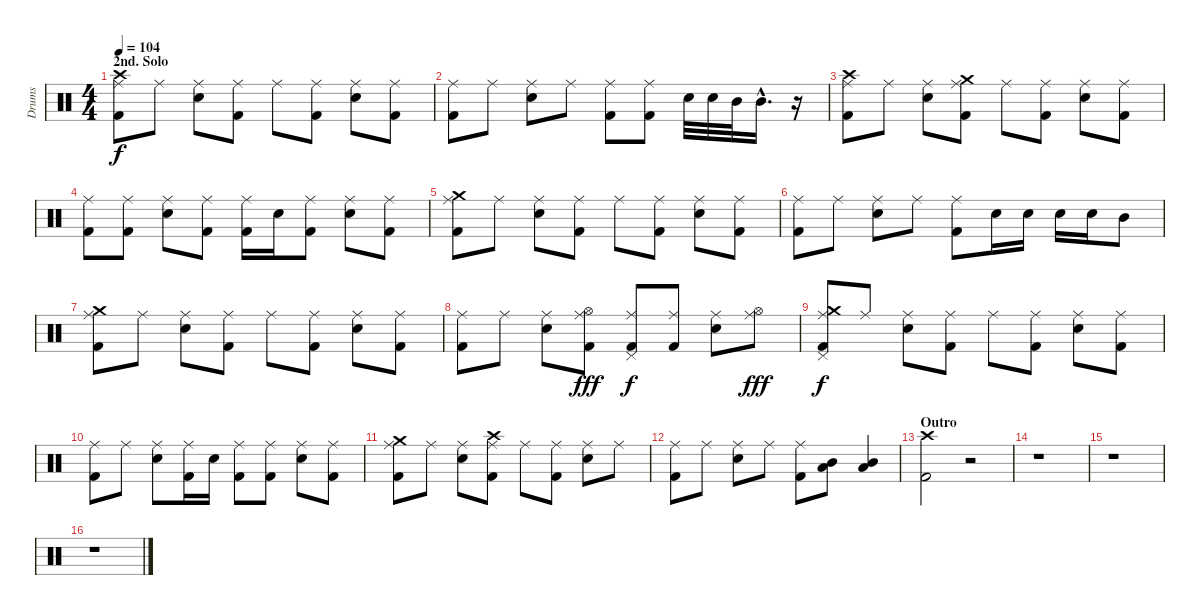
\track ("Drums" "Drums") {instrument percussion}
\staff {score}
\articulation defaults
\ts (4 4)
\section ("" "2nd. Solo")
\tempo 104
\clef neutral
\ks c
("Crash high (hit)" "Ride (middle)" "Kick (hit) 2").8{dy f} "Ride (middle)".8 ("Ride (middle)" "Electric Snare (hit)").8 ("Ride (middle)" "Kick (hit) 2").8 "Ride (middle)".8 ("Ride (middle)" "Kick (hit) 2").8 ("Ride (middle)" "Electric Snare (hit)").8 ("Ride (middle)" "Kick (hit) 2").8 |
("Ride (middle)" "Kick (hit) 2").8 "Ride (middle)".8 ("Ride (middle)" "Electric Snare (hit)").8 "Ride (middle)".8 ("Ride (middle)" "Kick (hit) 2").8 ("Ride (middle)" "Kick (hit) 2").8 "Electric Snare (hit)".32 "Electric Snare (hit)".32 "Mid Tom (hit)".32 "Mid Tom (hit)"{hac}.16{d} r.16 |
("Crash high (hit)" "Ride (middle)" "Kick (hit) 2").8 "Ride (middle)".8 ("Ride (middle)" "Electric Snare (hit)").8 ("Crash medium (hit)" "Ride (middle)" "Kick (hit) 2").8 "Ride (middle)".8 ("Ride (middle)" "Kick (hit) 2").8 ("Ride (middle)" "Electric Snare (hit)").8 ("Ride (middle)" "Kick (hit) 2").8 |
("Ride (middle)" "Kick (hit) 2").8 ("Ride (middle)" "Kick (hit) 2").8 ("Ride (middle)" "Electric Snare (hit)").8 ("Ride (middle)" "Kick (hit) 2").8 ("Ride (middle)" "Kick (hit) 2").16 "Electric Snare (hit)".16 ("Ride (middle)" "Kick (hit) 2").8 ("Ride (middle)" "Electric Snare (hit)").8 ("Ride (middle)" "Kick (hit) 2").8 |
("Crash medium (hit)" "Ride (middle)" "Kick (hit) 2").8 "Ride (middle)".8 ("Ride (middle)" "Electric Snare (hit)").8 ("Ride (middle)" "Kick (hit) 2").8 "Ride (middle)".8 ("Ride (middle)" "Kick (hit) 2").8 ("Ride (middle)" "Electric Snare (hit)").8 ("Ride (middle)" "Kick (hit) 2").8 |
("Ride (middle)" "Kick (hit) 2").8 "Ride (middle)".8 ("Ride (middle)" "Electric Snare (hit)").8 "Ride (middle)".8 ("Ride (middle)" "Kick (hit) 2").8 "Electric Snare (hit)".16 "Electric Snare (hit)".16 "Electric Snare (hit)".16 "Electric Snare (hit)".16 "Mid Tom (hit)".8 |
("Crash medium (hit)" "Ride (middle)" "Kick (hit) 2").8 "Ride (middle)".8 ("Ride (middle)" "Electric Snare (hit)").8 ("Ride (middle)" "Kick (hit) 2").8 "Ride (middle)".8 ("Ride (middle)" "Kick (hit) 2").8 ("Ride (middle)" "Electric Snare (hit)").8 ("Ride (middle)" "Kick (hit) 2").8 |
("Ride (middle)" "Kick (hit) 2").8 "Ride (middle)".8 ("Ride (middle)" "Electric Snare (hit)").8 ("Ride (middle)" "Hi-Hat (open)" "Kick (hit) 2").8{dy fff} ("Ride (middle)" "Pedal Hi-Hat (hit)" "Kick (hit) 2").8{dy f} ("Ride (middle)" "Kick (hit) 2").8 ("Ride (middle)" "Electric Snare (hit)").8 ("Ride (middle)" "Hi-Hat (open)").8{dy fff} |
("Crash medium (hit)" "Ride (middle)" "Pedal Hi-Hat (hit)" "Kick (hit) 2").8{dy f} "Ride (middle)".8 ("Ride (middle)" "Electric Snare (hit)").8 ("Ride (middle)" "Kick (hit) 2").8 "Ride (middle)".8 ("Ride (middle)" "Kick (hit) 2").8 ("Ride (middle)" "Electric Snare (hit)").8 ("Ride (middle)" "Kick (hit) 2").8 |
("Ride (middle)" "Kick (hit) 2").8 "Ride (middle)".8 ("Ride (middle)" "Electric Snare (hit)").8 ("Ride (middle)" "Kick (hit) 2").16 "Electric Snare (hit)".16 ("Ride (middle)" "Kick (hit) 2").8 ("Ride (middle)" "Kick (hit) 2").8 ("Ride (middle)" "Electric Snare (hit)").8 ("Ride (middle)" "Kick (hit) 2").8 |
("Crash medium (hit)" "Ride (middle)" "Kick (hit) 2").8 "Ride (middle)".8 ("Ride (middle)" "Electric Snare (hit)").8 ("Crash high (hit)" "Ride (middle)" "Kick (hit) 2").8 "Ride (middle)".8 ("Ride (middle)" "Kick (hit) 2").8 ("Ride (middle)" "Electric Snare (hit)").8 "Ride (middle)".8 |
("Ride (middle)" "Kick (hit) 2").8 "Ride (middle)".8 ("Ride (middle)" "Electric Snare (hit)").8 "Ride (middle)".8 ("Ride (middle)" "Kick (hit) 2").8 ("Mid Tom (hit)" "Low Tom (hit)").8 ("Mid Tom (hit)" "Low Tom (hit)").4 |
\section ("" "Outro")
("Crash high (hit)" "Kick (hit) 2").2 r.2 |
r.1 |
r.1 |
r.1
